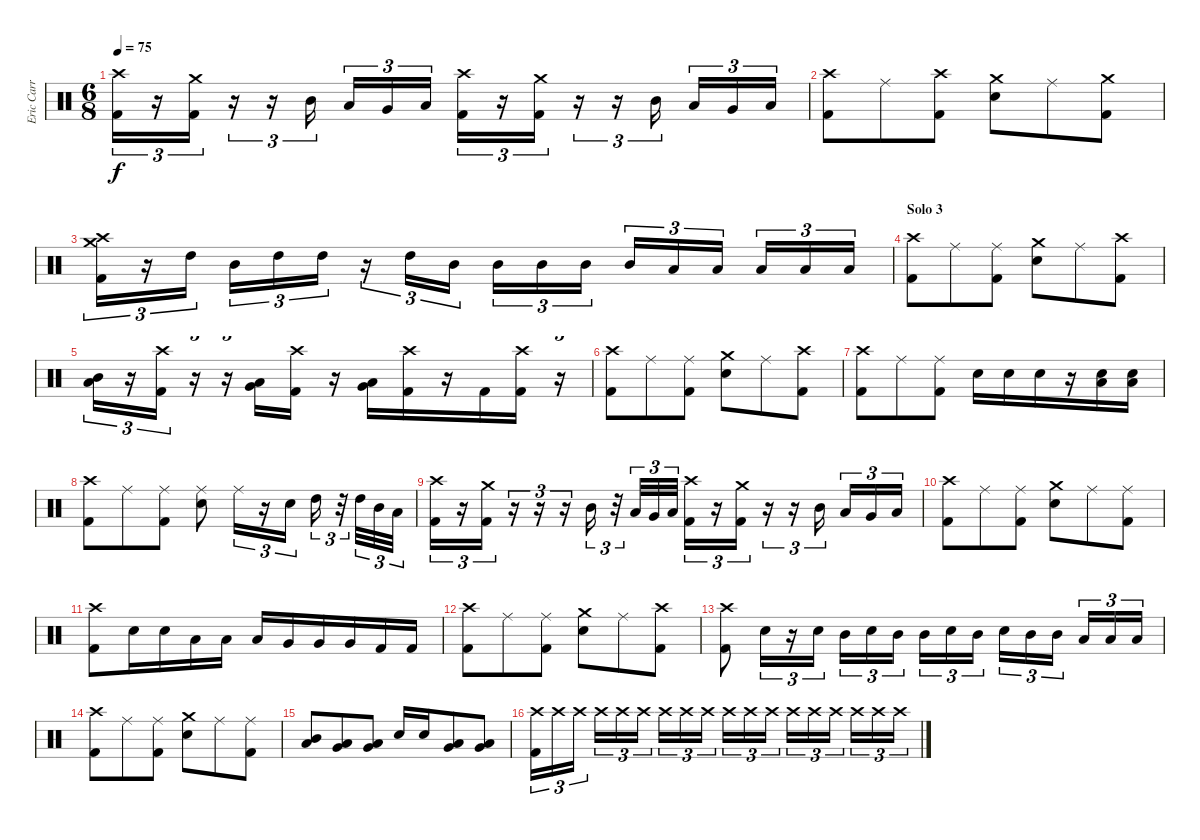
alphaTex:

\track ("Eric Carr" "Eric Carr") {instrument percussion}
\staff {score}
\articulation defaults
\ts (6 8)
\tempo 75
\clef neutral
\ks c
("Crash high (hit)" "Kick (hit) 2").16{tu (3 2) dy f} r.16{tu (3 2)} ("Crash medium (hit)" "Kick (hit) 2").16{tu (3 2)} r.16{tu (3 2)} r.16{tu (3 2)} "Mid Tom (hit)".16{tu (3 2)} "Low Tom (hit)".16{tu (3 2)} "Very Low Tom (hit)".16{tu (3 2)} "Low Floor Tom (hit)".16{tu (3 2)} ("Crash high (hit)" "Kick (hit) 2").16{tu (3 2)} r.16{tu (3 2)} ("Crash medium (hit)" "Kick (hit) 2").16{tu (3 2)} r.16{tu (3 2)} r.16{tu (3 2)} "Mid Tom (hit)".16{tu (3 2)} "Low Tom (hit)".16{tu (3 2)} "Very Low Tom (hit)".16{tu (3 2)} "Low Floor Tom (hit)".16{tu (3 2)} |
("Crash high (hit)" "Kick (hit) 2").8 "Ride (middle)".8 ("Crash high (hit)" "Kick (hit) 2").8 ("Crash medium (hit)" "Electric Snare (hit)").8 "Ride (middle)".8 ("Crash medium (hit)" "Kick (hit) 2").8 |
("Crash high (hit)" "Crash medium (hit)" "Kick (hit) 2").16{tu (3 2)} r.16{tu (3 2)} "High Tom (hit)".16{tu (3 2)} "Mid Tom (hit)".16{tu (3 2)} "High Tom (hit)".16{tu (3 2)} "High Tom (hit)".16{tu (3 2)} r.16{tu (3 2)} "High Tom (hit)".16{tu (3 2)} "Mid Tom (hit)".16{tu (3 2)} "Mid Tom (hit)".16{tu (3 2)} "Mid Tom (hit)".16{tu (3 2)} "Mid Tom (hit)".16{tu (3 2)} "Mid Tom (hit)".16{tu (3 2)} "Low Tom (hit)".16{tu (3 2)} "Low Tom (hit)".16{tu (3 2)} "Low Tom (hit)".16{tu (3 2)} "Low Tom (hit)".16{tu (3 2)} "Low Tom (hit)".16{tu (3 2)} |
\section ("" "Solo 3")
("Crash high (hit)" "Kick (hit) 2").8 "Ride (middle)".8 ("Ride (middle)" "Kick (hit) 2").8 ("Crash medium (hit)" "Electric Snare (hit)").8 "Ride (middle)".8 ("Crash high (hit)" "Kick (hit) 2").8 |
("Mid Tom (hit)" "Low Tom (hit)").16{tu (3 2)} r.16{tu (3 2)} ("Crash high (hit)" "Kick (hit) 2").16{tu (3 2)} r.16{tu (3 2)} r.16{tu (3 2)} ("Low Tom (hit)" "Very Low Tom (hit)").16 ("Crash high (hit)" "Kick (hit) 2").16 r.16 ("Very Low Tom (hit)" "Low Floor Tom (hit)").16 ("Crash high (hit)" "Kick (hit) 2").16 r.16 "Kick (hit) 2".16 ("Crash high (hit)" "Kick (hit) 2").16 r.16{tu (3 2)} |
("Crash high (hit)" "Kick (hit) 2").8 "Ride (middle)".8 ("Ride (middle)" "Kick (hit) 2").8 ("Crash medium (hit)" "Electric Snare (hit)").8 "Ride (middle)".8 ("Crash high (hit)" "Kick (hit) 2").8 |
("Crash high (hit)" "Kick (hit) 2").8 "Ride (middle)".8 ("Ride (middle)" "Kick (hit) 2").8 "Electric Snare (hit)".16 "Electric Snare (hit)".16 "Electric Snare (hit)".16 r.16 ("Low Floor Tom (hit)" "Electric Snare (hit)").16 ("Low Floor Tom (hit)" "Electric Snare (hit)").16 |
("Crash high (hit)" "Kick (hit) 2").8 "Ride (middle)".8 ("Ride (middle)" "Kick (hit) 2").8 ("Ride (middle)" "Electric Snare (hit)").8 "Ride (middle)".16{tu (3 2)} r.16{tu (3 2)} "Electric Snare (hit)".16{tu (3 2)} "High Tom (hit)".16{tu (3 2)} r.32{tu (3 2)} "High Tom (hit)".32{tu (3 2)} "Mid Tom (hit)".32{tu (3 2)} "Low Tom (hit)".32{tu (3 2)} |
("Crash high (hit)" "Kick (hit) 2").16{tu (3 2)} r.16{tu (3 2)} ("Crash medium (hit)" "Kick (hit) 2").16{tu (3 2)} r.16{tu (3 2)} r.16{tu (3 2)} r.16{tu (3 2)} "Mid Tom (hit)".16{tu (3 2)} r.32{tu (3 2)} "Low Tom (hit)".32{tu (3 2)} "Very Low Tom (hit)".32{tu (3 2)} "Low Floor Tom (hit)".32{tu (3 2)} ("Crash high (hit)" "Kick (hit) 2").16{tu (3 2)} r.16{tu (3 2)} ("Crash medium (hit)" "Kick (hit) 2").16{tu (3 2)} r.16{tu (3 2)} r.16{tu (3 2)} "Mid Tom (hit)".16{tu (3 2)} "Low Tom (hit)".16{tu (3 2)} "Very Low Tom (hit)".16{tu (3 2)} "Low Floor Tom (hit)".16{tu (3 2)} |
("Crash high (hit)" "Kick (hit) 2").8 "Ride (middle)".8 ("Ride (middle)" "Kick (hit) 2").8 ("Crash medium (hit)" "Electric Snare (hit)").8 "Ride (middle)".8 ("Ride (middle)" "Kick (hit) 2").8 |
("Crash high (hit)" "Kick (hit) 2").8 "Electric Snare (hit)".16 "Electric Snare (hit)".16 "Low Tom (hit)".16 "Low Tom (hit)".16 "Low Tom (hit)".16 "Very Low Tom (hit)".16 "Very Low Tom (hit)".16 "Very Low Tom (hit)".16 "Kick (hit) 2".16 "Kick (hit) 2".16 |
("Crash high (hit)" "Kick (hit) 2").8 "Ride (middle)".8 ("Ride (middle)" "Kick (hit) 2").8 ("Crash medium (hit)" "Electric Snare (hit)").8 "Ride (middle)".8 ("Crash high (hit)" "Kick (hit) 2").8 |
("Crash high (hit)" "Kick (hit) 2").8 "Electric Snare (hit)".16{tu (3 2)} r.16{tu (3 2)} "Electric Snare (hit)".16{tu (3 2)} "Mid Tom (hit)".16{tu (3 2)} "Electric Snare (hit)".16{tu (3 2)} "Mid Tom (hit)".16{tu (3 2)} "Mid Tom (hit)".16{tu (3 2)} "Electric Snare (hit)".16{tu (3 2)} "Mid Tom (hit)".16{tu (3 2)} "Electric Snare (hit)".16{tu (3 2)} "Mid Tom (hit)".16{tu (3 2)} "Mid Tom (hit)".16{tu (3 2)} "Low Tom (hit)".16{tu (3 2)} "Low Tom (hit)".16{tu (3 2)} "Low Tom (hit)".16{tu (3 2)} |
("Crash high (hit)" "Kick (hit) 2").8 "Ride (middle)".8 ("Ride (middle)" "Kick (hit) 2").8 ("Crash medium (hit)" "Electric Snare (hit)").8 "Ride (middle)".8 ("Ride (middle)" "Kick (hit) 2").8 |
("Mid Tom (hit)" "Low Tom (hit)").8 ("Low Tom (hit)" "Very Low Tom (hit)").8 ("Very Low Tom (hit)" "Low Floor Tom (hit)").8 "Electric Snare (hit)".16 "Electric Snare (hit)".16 ("Low Tom (hit)" "Very Low Tom (hit)").8 ("Very Low Tom (hit)" "Low Floor Tom (hit)").8 |
("Crash high (hit)" "Kick (hit) 2").16{tu (3 2)} "Crash high (hit)".16{tu (3 2)} "Crash high (hit)".16{tu (3 2)} "Crash high (hit)".16{tu (3 2)} "Crash high (hit)".16{tu (3 2)} "Crash high (hit)".16{tu (3 2)} "Crash high (hit)".16{tu (3 2)} "Crash high (hit)".16{tu (3 2)} "Crash high (hit)".16{tu (3 2)} "Crash high (hit)".16{tu (3 2)} "Crash high (hit)".16{tu (3 2)} "Crash high (hit)".16{tu (3 2)} "Crash high (hit)".16{tu (3 2)} "Crash high (hit)".16{tu (3 2)} "Crash high (hit)".16{tu (3 2)} "Crash high (hit)".16{tu (3 2)} "Crash high (hit)".16{tu (3 2)} "Crash high (hit)".16{tu (3 2)}
